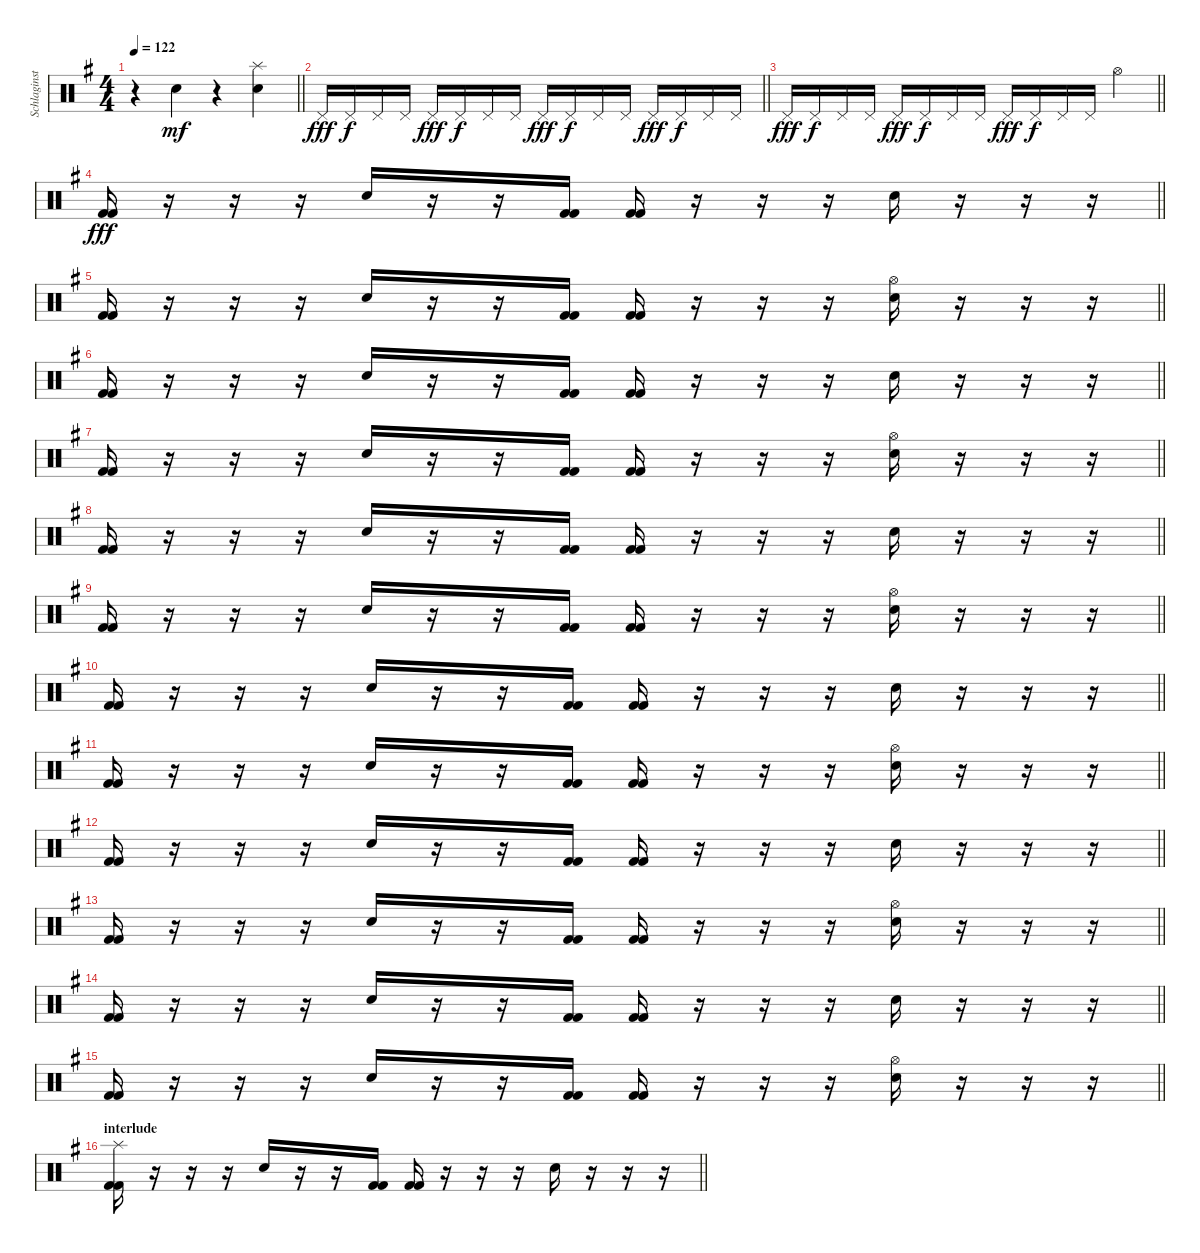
\track ("Schlaginstrumente - Auswahl" "Schlaginst") {instrument percussion}
\staff {score}
\articulation defaults
\ts (4 4)
\tempo 122
\clef neutral
\barLineRight lightlight
\ks g
r.4{dy mf} "Electric Snare (hit)".4 r.4 ("Splash (hit)" "Electric Snare (hit)").4 |
\barLineRight lightlight "Pedal Hi-Hat (hit)".16{dy fff} "Pedal Hi-Hat (hit)".16{dy f} "Pedal Hi-Hat (hit)".16 "Pedal Hi-Hat (hit)".16 "Pedal Hi-Hat (hit)".16{dy fff} "Pedal Hi-Hat (hit)".16{dy f} "Pedal Hi-Hat (hit)".16 "Pedal Hi-Hat (hit)".16 "Pedal Hi-Hat (hit)".16{dy fff} "Pedal Hi-Hat (hit)".16{dy f} "Pedal Hi-Hat (hit)".16 "Pedal Hi-Hat (hit)".16 "Pedal Hi-Hat (hit)".16{dy fff} "Pedal Hi-Hat (hit)".16{dy f} "Pedal Hi-Hat (hit)".16 "Pedal Hi-Hat (hit)".16
|
\barLineRight lightlight "Pedal Hi-Hat (hit)".16{dy fff} "Pedal Hi-Hat (hit)".16{dy f} "Pedal Hi-Hat (hit)".16 "Pedal Hi-Hat (hit)".16 "Pedal Hi-Hat (hit)".16{dy fff} "Pedal Hi-Hat (hit)".16{dy f} "Pedal Hi-Hat (hit)".16 "Pedal Hi-Hat (hit)".16 "Pedal Hi-Hat (hit)".16{dy fff} "Pedal Hi-Hat (hit)".16{dy f} "Pedal Hi-Hat (hit)".16 "Pedal Hi-Hat (hit)".16 "Hi-Hat (open)".4
|
\barLineRight lightlight
("Kick (hit) 2" "Kick (hit) 2").16{dy fff} r.16 r.16 r.16 "Electric Snare (hit)".16 r.16 r.16 ("Kick (hit) 2" "Kick (hit) 2").16 ("Kick (hit) 2" "Kick (hit) 2").16 r.16 r.16 r.16 "Electric Snare (hit)".16 r.16 r.16 r.16 |
\barLineRight lightlight
("Kick (hit) 2" "Kick (hit) 2").16 r.16 r.16 r.16 "Electric Snare (hit)".16 r.16 r.16 ("Kick (hit) 2" "Kick (hit) 2").16 ("Kick (hit) 2" "Kick (hit) 2").16 r.16 r.16 r.16 ("Hi-Hat (open)" "Electric Snare (hit)").16 r.16 r.16 r.16 |
\barLineRight lightlight
("Kick (hit) 2" "Kick (hit) 2").16 r.16 r.16 r.16 "Electric Snare (hit)".16 r.16 r.16 ("Kick (hit) 2" "Kick (hit) 2").16 ("Kick (hit) 2" "Kick (hit) 2").16 r.16 r.16 r.16 "Electric Snare (hit)".16 r.16 r.16 r.16 |
\barLineRight lightlight
("Kick (hit) 2" "Kick (hit) 2").16 r.16 r.16 r.16 "Electric Snare (hit)".16 r.16 r.16 ("Kick (hit) 2" "Kick (hit) 2").16 ("Kick (hit) 2" "Kick (hit) 2").16 r.16 r.16 r.16 ("Hi-Hat (open)" "Electric Snare (hit)").16 r.16 r.16 r.16 |
\barLineRight lightlight
("Kick (hit) 2" "Kick (hit) 2").16 r.16 r.16 r.16 "Electric Snare (hit)".16 r.16 r.16 ("Kick (hit) 2" "Kick (hit) 2").16 ("Kick (hit) 2" "Kick (hit) 2").16 r.16 r.16 r.16 "Electric Snare (hit)".16 r.16 r.16 r.16 |
\barLineRight lightlight
("Kick (hit) 2" "Kick (hit) 2").16 r.16 r.16 r.16 "Electric Snare (hit)".16 r.16 r.16 ("Kick (hit) 2" "Kick (hit) 2").16 ("Kick (hit) 2" "Kick (hit) 2").16 r.16 r.16 r.16 ("Hi-Hat (open)" "Electric Snare (hit)").16 r.16 r.16 r.16 |
\barLineRight lightlight
("Kick (hit) 2" "Kick (hit) 2").16 r.16 r.16 r.16 "Electric Snare (hit)".16 r.16 r.16 ("Kick (hit) 2" "Kick (hit) 2").16 ("Kick (hit) 2" "Kick (hit) 2").16 r.16 r.16 r.16 "Electric Snare (hit)".16 r.16 r.16 r.16 |
\barLineRight lightlight
("Kick (hit) 2" "Kick (hit) 2").16 r.16 r.16 r.16 "Electric Snare (hit)".16 r.16 r.16 ("Kick (hit) 2" "Kick (hit) 2").16 ("Kick (hit) 2" "Kick (hit) 2").16 r.16 r.16 r.16 ("Hi-Hat (open)" "Electric Snare (hit)").16 r.16 r.16 r.16 |
\barLineRight lightlight
("Kick (hit) 2" "Kick (hit) 2").16 r.16 r.16 r.16 "Electric Snare (hit)".16 r.16 r.16 ("Kick (hit) 2" "Kick (hit) 2").16 ("Kick (hit) 2" "Kick (hit) 2").16 r.16 r.16 r.16 "Electric Snare (hit)".16 r.16 r.16 r.16 |
\barLineRight lightlight
("Kick (hit) 2" "Kick (hit) 2").16 r.16 r.16 r.16 "Electric Snare (hit)".16 r.16 r.16 ("Kick (hit) 2" "Kick (hit) 2").16 ("Kick (hit) 2" "Kick (hit) 2").16 r.16 r.16 r.16 ("Hi-Hat (open)" "Electric Snare (hit)").16 r.16 r.16 r.16 |
\barLineRight lightlight
("Kick (hit) 2" "Kick (hit) 2").16 r.16 r.16 r.16 "Electric Snare (hit)".16 r.16 r.16 ("Kick (hit) 2" "Kick (hit) 2").16 ("Kick (hit) 2" "Kick (hit) 2").16 r.16 r.16 r.16 "Electric Snare (hit)".16 r.16 r.16 r.16 |
\barLineRight lightlight
("Kick (hit) 2" "Kick (hit) 2").16 r.16 r.16 r.16 "Electric Snare (hit)".16 r.16 r.16 ("Kick (hit) 2" "Kick (hit) 2").16 ("Kick (hit) 2" "Kick (hit) 2").16 r.16 r.16 r.16 ("Hi-Hat (open)" "Electric Snare (hit)").16 r.16 r.16 r.16 |
\section ("" "interlude")
\barLineRight lightlight
("Splash (hit)" "Kick (hit) 2" "Kick (hit) 2").16 r.16 r.16 r.16 "Electric Snare (hit)".16 r.16 r.16 ("Kick (hit) 2" "Kick (hit) 2").16 ("Kick (hit) 2" "Kick (hit) 2").16 r.16 r.16 r.16 "Electric Snare (hit)".16 r.16 r.16 r.16
